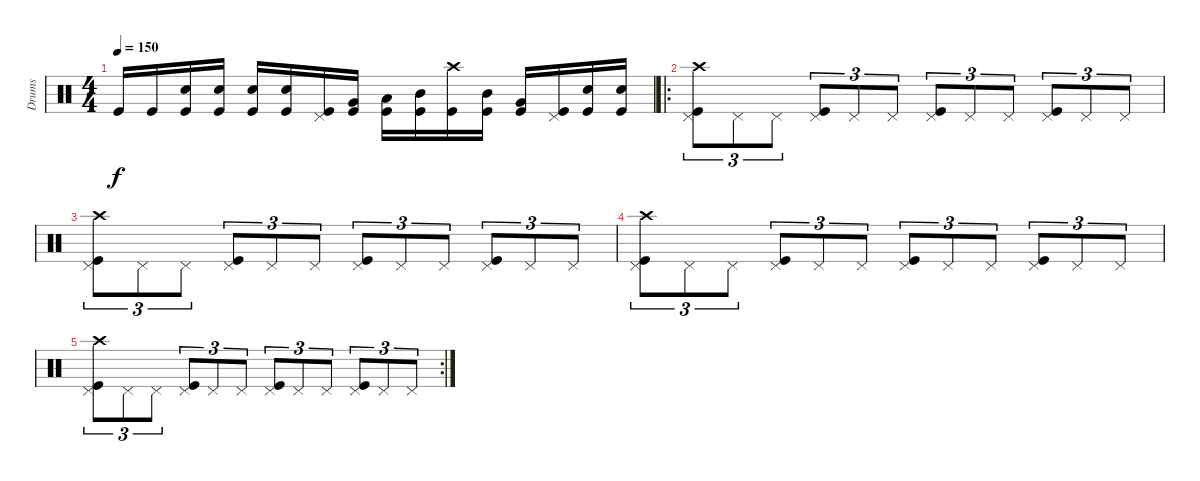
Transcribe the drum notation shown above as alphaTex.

\track ("Drums" "Drums") {instrument percussion}
\staff {score}
\articulation defaults
\ts (4 4)
\tempo 150
\clef neutral
\ks c "Kick (hit)".16{dy f} "Kick (hit)".16
("Kick (hit)" "Snare (hit) 2").16 ("Kick (hit)" "Snare (hit) 2").16 ("Kick (hit)" "Snare (hit) 2").16 ("Kick (hit)" "Snare (hit) 2").16 ("Kick (hit)" "Pedal Hi-Hat (hit)").16 ("Kick (hit)" "Very Low Tom (hit)").16 ("Kick (hit)" "Low Tom (hit)").16 ("Kick (hit)" "Mid Tom (hit)").16 ("Kick (hit)" "Crash high (hit)").16 ("Kick (hit)" "Mid Tom (hit)").16 ("Kick (hit)" "Very Low Tom (hit)").16 ("Kick (hit)" "Pedal Hi-Hat (hit)").16 ("Kick (hit)" "Snare (hit) 2").16 ("Kick (hit)" "Snare (hit) 2").16 |
\ro
("Kick (hit)" "Pedal Hi-Hat (hit)" "Crash high (hit)").8{tu (3 2)} "Pedal Hi-Hat (hit)".8{tu (3 2)} "Pedal Hi-Hat (hit)".8{tu (3 2)} ("Kick (hit)" "Pedal Hi-Hat (hit)").8{tu (3 2)} "Pedal Hi-Hat (hit)".8{tu (3 2)} "Pedal Hi-Hat (hit)".8{tu (3 2)} ("Kick (hit)" "Pedal Hi-Hat (hit)").8{tu (3 2)} "Pedal Hi-Hat (hit)".8{tu (3 2)} "Pedal Hi-Hat (hit)".8{tu (3 2)} ("Kick (hit)" "Pedal Hi-Hat (hit)").8{tu (3 2)} "Pedal Hi-Hat (hit)".8{tu (3 2)} "Pedal Hi-Hat (hit)".8{tu (3 2)} |
("Kick (hit)" "Pedal Hi-Hat (hit)" "Crash high (hit)").8{tu (3 2)} "Pedal Hi-Hat (hit)".8{tu (3 2)} "Pedal Hi-Hat (hit)".8{tu (3 2)} ("Kick (hit)" "Pedal Hi-Hat (hit)").8{tu (3 2)} "Pedal Hi-Hat (hit)".8{tu (3 2)} "Pedal Hi-Hat (hit)".8{tu (3 2)} ("Kick (hit)" "Pedal Hi-Hat (hit)").8{tu (3 2)} "Pedal Hi-Hat (hit)".8{tu (3 2)} "Pedal Hi-Hat (hit)".8{tu (3 2)} ("Kick (hit)" "Pedal Hi-Hat (hit)").8{tu (3 2)} "Pedal Hi-Hat (hit)".8{tu (3 2)} "Pedal Hi-Hat (hit)".8{tu (3 2)} |
("Kick (hit)" "Pedal Hi-Hat (hit)" "Crash high (hit)").8{tu (3 2)} "Pedal Hi-Hat (hit)".8{tu (3 2)} "Pedal Hi-Hat (hit)".8{tu (3 2)} ("Kick (hit)" "Pedal Hi-Hat (hit)").8{tu (3 2)} "Pedal Hi-Hat (hit)".8{tu (3 2)} "Pedal Hi-Hat (hit)".8{tu (3 2)} ("Kick (hit)" "Pedal Hi-Hat (hit)").8{tu (3 2)} "Pedal Hi-Hat (hit)".8{tu (3 2)} "Pedal Hi-Hat (hit)".8{tu (3 2)} ("Kick (hit)" "Pedal Hi-Hat (hit)").8{tu (3 2)} "Pedal Hi-Hat (hit)".8{tu (3 2)} "Pedal Hi-Hat (hit)".8{tu (3 2)} |
\rc 2
("Kick (hit)" "Pedal Hi-Hat (hit)" "Crash high (hit)").8{tu (3 2)} "Pedal Hi-Hat (hit)".8{tu (3 2)} "Pedal Hi-Hat (hit)".8{tu (3 2)} ("Kick (hit)" "Pedal Hi-Hat (hit)").8{tu (3 2)} "Pedal Hi-Hat (hit)".8{tu (3 2)} "Pedal Hi-Hat (hit)".8{tu (3 2)} ("Kick (hit)" "Pedal Hi-Hat (hit)").8{tu (3 2)} "Pedal Hi-Hat (hit)".8{tu (3 2)} "Pedal Hi-Hat (hit)".8{tu (3 2)} ("Kick (hit)" "Pedal Hi-Hat (hit)").8{tu (3 2)} "Pedal Hi-Hat (hit)".8{tu (3 2)} "Pedal Hi-Hat (hit)".8{tu (3 2)}
